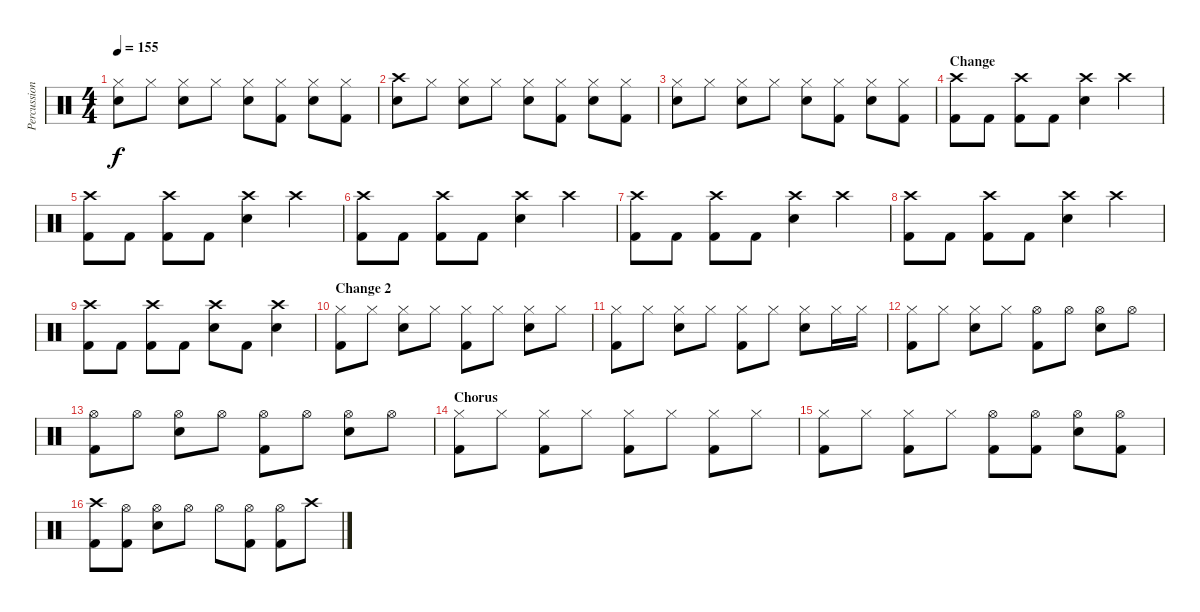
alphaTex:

\track ("Percussion" "Percussion") {instrument percussion}
\staff {score}
\articulation defaults
\ts (4 4)
\tempo 155
\clef neutral
\ks c
("Hi-Hat (closed)" "Snare (hit) 2").8{dy f} "Hi-Hat (closed)".8 ("Hi-Hat (closed)" "Snare (hit) 2").8 "Hi-Hat (closed)".8 ("Hi-Hat (closed)" "Snare (hit) 2").8 ("Hi-Hat (closed)" "Kick (hit) 2").8 ("Hi-Hat (closed)" "Snare (hit) 2").8 ("Hi-Hat (closed)" "Kick (hit) 2").8 |
("Crash high (hit)" "Snare (hit) 2").8 "Hi-Hat (closed)".8 ("Hi-Hat (closed)" "Snare (hit) 2").8 "Hi-Hat (closed)".8 ("Hi-Hat (closed)" "Snare (hit) 2").8 ("Hi-Hat (closed)" "Kick (hit) 2").8 ("Hi-Hat (closed)" "Snare (hit) 2").8 ("Hi-Hat (closed)" "Kick (hit) 2").8 |
("Hi-Hat (closed)" "Snare (hit) 2").8 "Hi-Hat (closed)".8 ("Hi-Hat (closed)" "Snare (hit) 2").8 "Hi-Hat (closed)".8 ("Hi-Hat (closed)" "Snare (hit) 2").8 ("Hi-Hat (closed)" "Kick (hit) 2").8 ("Hi-Hat (closed)" "Snare (hit) 2").8 ("Hi-Hat (closed)" "Kick (hit) 2").8 |
\section ("" "Change")
("Crash high (hit)" "Kick (hit) 2").8 "Kick (hit) 2".8 ("Crash high (hit)" "Kick (hit) 2").8 "Kick (hit) 2".8 ("Crash high (hit)" "Snare (hit) 2").4 "Crash high (hit)".4 |
("Crash high (hit)" "Kick (hit) 2").8 "Kick (hit) 2".8 ("Crash high (hit)" "Kick (hit) 2").8 "Kick (hit) 2".8 ("Crash high (hit)" "Snare (hit) 2").4 "Crash high (hit)".4 |
("Crash high (hit)" "Kick (hit) 2").8 "Kick (hit) 2".8 ("Crash high (hit)" "Kick (hit) 2").8 "Kick (hit) 2".8 ("Crash high (hit)" "Snare (hit) 2").4 "Crash high (hit)".4 |
("Crash high (hit)" "Kick (hit) 2").8 "Kick (hit) 2".8 ("Crash high (hit)" "Kick (hit) 2").8 "Kick (hit) 2".8 ("Crash high (hit)" "Snare (hit) 2").4 "Crash high (hit)".4 |
("Crash high (hit)" "Kick (hit) 2").8 "Kick (hit) 2".8 ("Crash high (hit)" "Kick (hit) 2").8 "Kick (hit) 2".8 ("Crash high (hit)" "Snare (hit) 2").4 "Crash high (hit)".4 |
("Crash high (hit)" "Kick (hit) 2").8 "Kick (hit) 2".8 ("Crash high (hit)" "Kick (hit) 2").8 "Kick (hit) 2".8 ("Crash high (hit)" "Snare (hit) 2").8 "Kick (hit) 2".8 ("Crash high (hit)" "Snare (hit) 2").4 |
\section ("" "Change 2")
("Hi-Hat (closed)" "Kick (hit) 2").8 "Hi-Hat (closed)".8 ("Hi-Hat (closed)" "Snare (hit) 2").8 "Hi-Hat (closed)".8 ("Hi-Hat (closed)" "Kick (hit) 2").8 "Hi-Hat (closed)".8 ("Hi-Hat (closed)" "Snare (hit) 2").8 "Hi-Hat (closed)".8 |
("Hi-Hat (closed)" "Kick (hit) 2").8 "Hi-Hat (closed)".8 ("Hi-Hat (closed)" "Snare (hit) 2").8 "Hi-Hat (closed)".8 ("Hi-Hat (closed)" "Kick (hit) 2").8 "Hi-Hat (closed)".8 ("Hi-Hat (closed)" "Snare (hit) 2").8 "Hi-Hat (closed)".16 "Hi-Hat (closed)".16 |
("Hi-Hat (closed)" "Kick (hit) 2").8 "Hi-Hat (closed)".8 ("Hi-Hat (closed)" "Snare (hit) 2").8 "Hi-Hat (closed)".8 ("Hi-Hat (open)" "Kick (hit) 2").8 "Hi-Hat (open)".8 ("Hi-Hat (open)" "Snare (hit) 2").8 "Hi-Hat (open)".8 |
("Hi-Hat (open)" "Kick (hit) 2").8 "Hi-Hat (open)".8 ("Hi-Hat (open)" "Snare (hit) 2").8 "Hi-Hat (open)".8 ("Hi-Hat (open)" "Kick (hit) 2").8 "Hi-Hat (open)".8 ("Hi-Hat (open)" "Snare (hit) 2").8 "Hi-Hat (open)".8 |
\section ("" "Chorus")
("Hi-Hat (closed)" "Kick (hit) 2").8 "Hi-Hat (closed)".8 ("Hi-Hat (closed)" "Kick (hit) 2").8 "Hi-Hat (closed)".8 ("Hi-Hat (closed)" "Kick (hit) 2").8 "Hi-Hat (closed)".8 ("Hi-Hat (closed)" "Kick (hit) 2").8 "Hi-Hat (closed)".8 |
("Hi-Hat (closed)" "Kick (hit) 2").8 "Hi-Hat (closed)".8 ("Hi-Hat (closed)" "Kick (hit) 2").8 "Hi-Hat (closed)".8 ("Hi-Hat (open)" "Kick (hit) 2").8 ("Hi-Hat (open)" "Kick (hit) 2").8 ("Hi-Hat (open)" "Snare (hit) 2").8 ("Hi-Hat (open)" "Kick (hit) 2").8 |
("Crash high (hit)" "Kick (hit) 2").8 ("Hi-Hat (open)" "Kick (hit) 2").8 ("Hi-Hat (open)" "Snare (hit) 2").8 "Hi-Hat (open)".8 "Hi-Hat (open)".8 ("Hi-Hat (open)" "Kick (hit) 2").8 ("Hi-Hat (open)" "Kick (hit) 2").8 "Crash high (hit)".8
